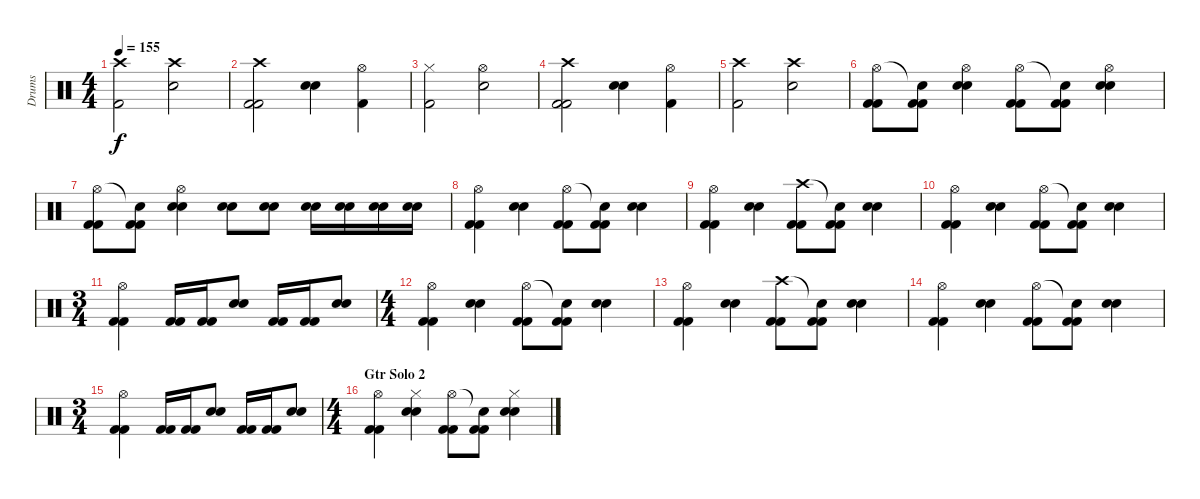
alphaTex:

\track ("Drums" "Drums") {instrument percussion}
\staff {score}
\articulation defaults
\ts (4 4)
\tempo 155
\clef neutral
\ks c
("Crash high (hit)" "Kick (hit) 2").2{dy f} ("Crash high (hit)" "Snare (hit) 2").2 |
("Crash high (hit)" "Kick (hit) 2" "Kick (hit) 2").2 ("Snare (hit) 2" "Snare (hit) 2").4 ("Hi-Hat (open)" "Kick (hit) 2").4 |
("Hi-Hat (closed)" "Kick (hit) 2").2 ("Hi-Hat (open)" "Snare (hit) 2").2 |
("Crash high (hit)" "Kick (hit) 2" "Kick (hit) 2").2 ("Snare (hit) 2" "Snare (hit) 2").4 ("Hi-Hat (open)" "Kick (hit) 2").4 |
("Crash high (hit)" "Kick (hit) 2").2 ("Crash high (hit)" "Snare (hit) 2").2 |
("Hi-Hat (open)" "Kick (hit) 2" "Kick (hit) 2").8 ("Snare (hit)"{t} "Kick (hit) 2" "Kick (hit) 2").8 ("Hi-Hat (open)" "Snare (hit) 2" "Snare (hit) 2").4 ("Hi-Hat (open)" "Kick (hit) 2" "Kick (hit) 2").8 ("Snare (hit)"{t} "Kick (hit) 2" "Kick (hit) 2").8 ("Hi-Hat (open)" "Snare (hit) 2" "Snare (hit) 2").4 |
("Hi-Hat (open)" "Kick (hit) 2" "Kick (hit) 2").8 ("Snare (hit)"{t} "Kick (hit) 2" "Kick (hit) 2").8 ("Hi-Hat (open)" "Snare (hit) 2" "Snare (hit) 2").4 ("Snare (hit) 2" "Snare (hit) 2").8 ("Snare (hit) 2" "Snare (hit) 2").8 ("Snare (hit) 2" "Snare (hit) 2").16 ("Snare (hit) 2" "Snare (hit) 2").16 ("Snare (hit) 2" "Snare (hit) 2").16 ("Snare (hit) 2" "Snare (hit) 2").16 |
("Hi-Hat (open)" "Kick (hit) 2" "Kick (hit) 2").4 ("Snare (hit) 2" "Snare (hit) 2").4 ("Hi-Hat (open)" "Kick (hit) 2" "Kick (hit) 2").8 ("Snare (hit)"{t} "Kick (hit) 2" "Kick (hit) 2").8 ("Snare (hit) 2" "Snare (hit) 2").4 |
("Hi-Hat (open)" "Kick (hit) 2" "Kick (hit) 2").4 ("Snare (hit) 2" "Snare (hit) 2").4 ("Crash high (hit)" "Kick (hit) 2" "Kick (hit) 2").8 ("Snare (hit)"{t} "Kick (hit) 2" "Kick (hit) 2").8 ("Snare (hit) 2" "Snare (hit) 2").4 |
("Hi-Hat (open)" "Kick (hit) 2" "Kick (hit) 2").4 ("Snare (hit) 2" "Snare (hit) 2").4 ("Hi-Hat (open)" "Kick (hit) 2" "Kick (hit) 2").8 ("Snare (hit)"{t} "Kick (hit) 2" "Kick (hit) 2").8 ("Snare (hit) 2" "Snare (hit) 2").4 |
\ts (3 4)
("Hi-Hat (open)" "Kick (hit) 2" "Kick (hit) 2").4 ("Kick (hit) 2" "Kick (hit) 2").16 ("Kick (hit) 2" "Kick (hit) 2").16 ("Snare (hit) 2" "Snare (hit) 2").8 ("Kick (hit) 2" "Kick (hit) 2").16 ("Kick (hit) 2" "Kick (hit) 2").16 ("Snare (hit) 2" "Snare (hit) 2").8 |
\ts (4 4)
("Hi-Hat (open)" "Kick (hit) 2" "Kick (hit) 2").4 ("Snare (hit) 2" "Snare (hit) 2").4 ("Hi-Hat (open)" "Kick (hit) 2" "Kick (hit) 2").8 ("Snare (hit)"{t} "Kick (hit) 2" "Kick (hit) 2").8 ("Snare (hit) 2" "Snare (hit) 2").4 |
("Hi-Hat (open)" "Kick (hit) 2" "Kick (hit) 2").4 ("Snare (hit) 2" "Snare (hit) 2").4 ("Crash high (hit)" "Kick (hit) 2" "Kick (hit) 2").8 ("Snare (hit)"{t} "Kick (hit) 2" "Kick (hit) 2").8 ("Snare (hit) 2" "Snare (hit) 2").4 |
("Hi-Hat (open)" "Kick (hit) 2" "Kick (hit) 2").4 ("Snare (hit) 2" "Snare (hit) 2").4 ("Hi-Hat (open)" "Kick (hit) 2" "Kick (hit) 2").8 ("Snare (hit)"{t} "Kick (hit) 2" "Kick (hit) 2").8 ("Snare (hit) 2" "Snare (hit) 2").4 |
\ts (3 4)
("Hi-Hat (open)" "Kick (hit) 2" "Kick (hit) 2").4 ("Kick (hit) 2" "Kick (hit) 2").16 ("Kick (hit) 2" "Kick (hit) 2").16 ("Snare (hit) 2" "Snare (hit) 2").8 ("Kick (hit) 2" "Kick (hit) 2").16 ("Kick (hit) 2" "Kick (hit) 2").16 ("Snare (hit) 2" "Snare (hit) 2").8 |
\ts (4 4)
\section ("" "Gtr Solo 2")
("Hi-Hat (open)" "Kick (hit) 2" "Kick (hit) 2").4 ("Hi-Hat (closed)" "Snare (hit) 2" "Snare (hit) 2").4 ("Hi-Hat (open)" "Kick (hit) 2" "Kick (hit) 2").8 ("Snare (hit)"{t} "Kick (hit) 2" "Kick (hit) 2").8 ("Hi-Hat (closed)" "Snare (hit) 2" "Snare (hit) 2").4
